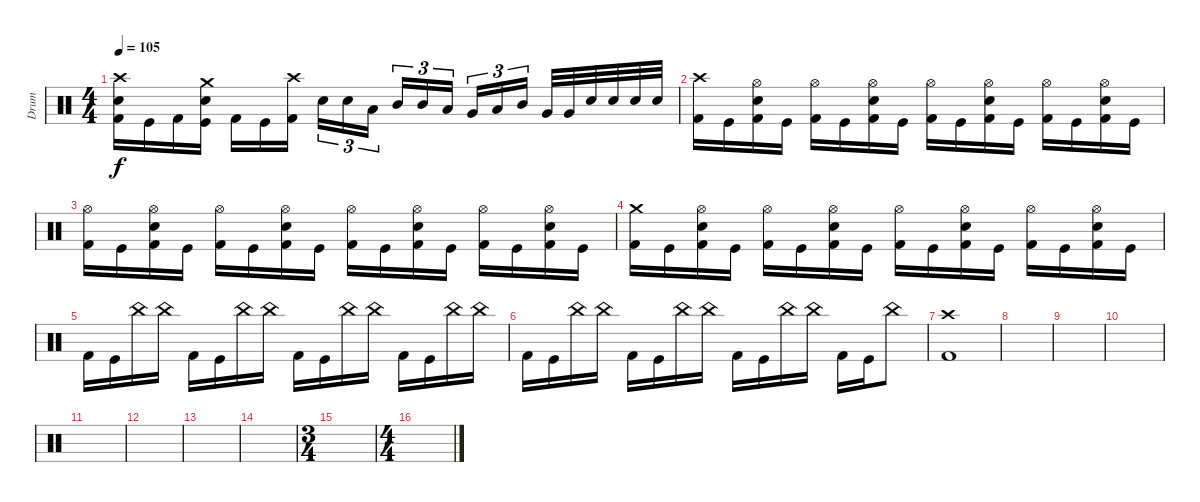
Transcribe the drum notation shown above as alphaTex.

\track ("Drum" "Drum") {instrument percussion}
\staff {score}
\articulation defaults
\ts (4 4)
\tempo 105
\clef neutral
\ks c
("Crash high (hit)" "Snare (hit) 2" "Kick (hit) 2").16{dy f} "Kick (hit)".16 "Kick (hit) 2".16 ("Crash medium (hit)" "Snare (hit) 2" "Kick (hit)").16 "Kick (hit) 2".16 "Kick (hit)".16 ("Crash high (hit)" "Kick (hit) 2").16 "Snare (hit) 2".16{tu (3 2)} "Snare (hit) 2".16{tu (3 2)} "Low Tom (hit)".16{tu (3 2)} "Mid Tom (hit)".16{tu (3 2)} "Mid Tom (hit)".16{tu (3 2)} "Low Tom (hit)".16{tu (3 2)} "Very Low Tom (hit)".16{tu (3 2)} "Low Tom (hit)".16{tu (3 2)} "Mid Tom (hit)".16{tu (3 2)} "Very Low Tom (hit)".32 "Very Low Tom (hit)".32 "Snare (hit) 2".32 "Snare (hit) 2".32 "Snare (hit) 2".32 "Snare (hit) 2".32 |
("Crash high (hit)" "Kick (hit) 2").16 "Kick (hit)".16 ("Hi-Hat (open)" "Snare (hit) 2" "Kick (hit) 2").16 "Kick (hit)".16 ("Hi-Hat (open)" "Kick (hit) 2").16 "Kick (hit)".16 ("Hi-Hat (open)" "Snare (hit) 2" "Kick (hit) 2").16 "Kick (hit)".16 ("Hi-Hat (open)" "Kick (hit) 2").16 "Kick (hit)".16 ("Hi-Hat (open)" "Snare (hit) 2" "Kick (hit) 2").16 "Kick (hit)".16 ("Hi-Hat (open)" "Kick (hit) 2").16 "Kick (hit)".16 ("Hi-Hat (open)" "Snare (hit) 2" "Kick (hit) 2").16 "Kick (hit)".16 |
("Hi-Hat (open)" "Kick (hit) 2").16 "Kick (hit)".16 ("Hi-Hat (open)" "Snare (hit) 2" "Kick (hit) 2").16 "Kick (hit)".16 ("Hi-Hat (open)" "Kick (hit) 2").16 "Kick (hit)".16 ("Hi-Hat (open)" "Snare (hit) 2" "Kick (hit) 2").16 "Kick (hit)".16 ("Hi-Hat (open)" "Kick (hit) 2").16 "Kick (hit)".16 ("Hi-Hat (open)" "Snare (hit) 2" "Kick (hit) 2").16 "Kick (hit)".16 ("Hi-Hat (open)" "Kick (hit) 2").16 "Kick (hit)".16 ("Hi-Hat (open)" "Snare (hit) 2" "Kick (hit) 2").16 "Kick (hit)".16 |
("Crash medium (hit)" "Kick (hit) 2").16 "Kick (hit)".16 ("Hi-Hat (open)" "Snare (hit) 2" "Kick (hit) 2").16 "Kick (hit)".16 ("Hi-Hat (open)" "Kick (hit) 2").16 "Kick (hit)".16 ("Hi-Hat (open)" "Snare (hit) 2" "Kick (hit) 2").16 "Kick (hit)".16 ("Hi-Hat (open)" "Kick (hit) 2").16 "Kick (hit)".16 ("Hi-Hat (open)" "Snare (hit) 2" "Kick (hit) 2").16 "Kick (hit)".16 ("Hi-Hat (open)" "Kick (hit) 2").16 "Kick (hit)".16 ("Hi-Hat (open)" "Snare (hit) 2" "Kick (hit) 2").16 "Kick (hit)".16 |
"Kick (hit) 2".16 "Kick (hit)".16 "China (hit)".16 "China (hit)".16 "Kick (hit) 2".16 "Kick (hit)".16 "China (hit)".16 "China (hit)".16 "Kick (hit) 2".16 "Kick (hit)".16 "China (hit)".16 "China (hit)".16 "Kick (hit) 2".16 "Kick (hit)".16 "China (hit)".16 "China (hit)".16 |
"Kick (hit) 2".16 "Kick (hit)".16 "China (hit)".16 "China (hit)".16 "Kick (hit) 2".16 "Kick (hit)".16 "China (hit)".16 "China (hit)".16 "Kick (hit) 2".16 "Kick (hit)".16 "China (hit)".16 "China (hit)".16 "Kick (hit) 2".16 "Kick (hit)".16 "China (hit)".8 |
("Crash high (hit)" "Kick (hit) 2").1 |
|
|
|
|
|
|
|
\ts (3 4)
|
\ts (4 4)
